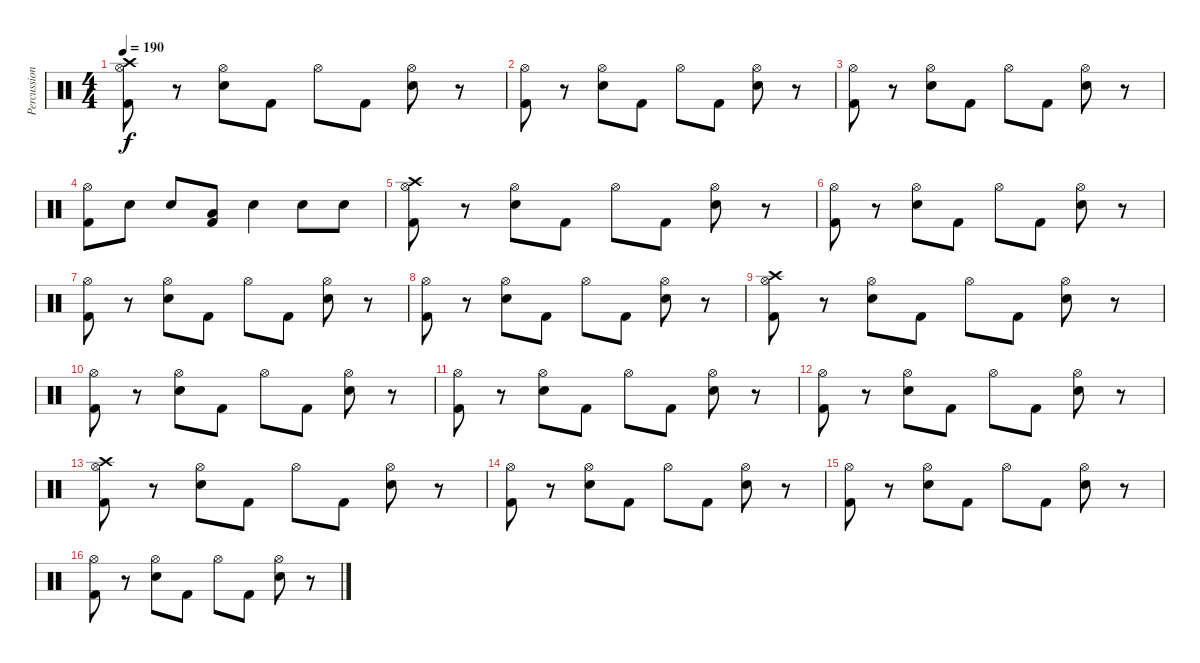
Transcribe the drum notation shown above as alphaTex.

\track ("Percussioni" "Percussion") {instrument percussion}
\staff {score}
\articulation defaults
\ts (4 4)
\tempo 190
\clef neutral
\ks c
("Hi-Hat (open)" "Crash high (hit)" "Kick (hit) 2").8{dy f} r.8 ("Hi-Hat (open)" "Snare (hit) 2").8 "Kick (hit) 2".8 "Hi-Hat (open)".8 "Kick (hit) 2".8 ("Hi-Hat (open)" "Snare (hit) 2").8 r.8 |
("Hi-Hat (open)" "Kick (hit) 2").8 r.8 ("Hi-Hat (open)" "Snare (hit) 2").8 "Kick (hit) 2".8 "Hi-Hat (open)".8 "Kick (hit) 2".8 ("Hi-Hat (open)" "Snare (hit) 2").8 r.8 |
("Hi-Hat (open)" "Kick (hit) 2").8 r.8 ("Hi-Hat (open)" "Snare (hit) 2").8 "Kick (hit) 2".8 "Hi-Hat (open)".8 "Kick (hit) 2".8 ("Hi-Hat (open)" "Snare (hit) 2").8 r.8 |
("Hi-Hat (open)" "Kick (hit) 2").8 "Snare (hit) 2".8 "Snare (hit) 2".8 ("Low Tom (hit)" "Kick (hit) 2").8 "Snare (hit) 2".4 "Snare (hit) 2".8 "Snare (hit) 2".8 |
("Hi-Hat (open)" "Crash high (hit)" "Kick (hit) 2").8 r.8 ("Hi-Hat (open)" "Snare (hit) 2").8 "Kick (hit) 2".8 "Hi-Hat (open)".8 "Kick (hit) 2".8 ("Hi-Hat (open)" "Snare (hit) 2").8 r.8 |
("Hi-Hat (open)" "Kick (hit) 2").8 r.8 ("Hi-Hat (open)" "Snare (hit) 2").8 "Kick (hit) 2".8 "Hi-Hat (open)".8 "Kick (hit) 2".8 ("Hi-Hat (open)" "Snare (hit) 2").8 r.8 |
("Hi-Hat (open)" "Kick (hit) 2").8 r.8 ("Hi-Hat (open)" "Snare (hit) 2").8 "Kick (hit) 2".8 "Hi-Hat (open)".8 "Kick (hit) 2".8 ("Hi-Hat (open)" "Snare (hit) 2").8 r.8 |
("Hi-Hat (open)" "Kick (hit) 2").8 r.8 ("Hi-Hat (open)" "Snare (hit) 2").8 "Kick (hit) 2".8 "Hi-Hat (open)".8 "Kick (hit) 2".8 ("Hi-Hat (open)" "Snare (hit) 2").8 r.8 |
("Hi-Hat (open)" "Crash high (hit)" "Kick (hit) 2").8 r.8 ("Hi-Hat (open)" "Snare (hit) 2").8 "Kick (hit) 2".8 "Hi-Hat (open)".8 "Kick (hit) 2".8 ("Hi-Hat (open)" "Snare (hit) 2").8 r.8 |
("Hi-Hat (open)" "Kick (hit) 2").8 r.8 ("Hi-Hat (open)" "Snare (hit) 2").8 "Kick (hit) 2".8 "Hi-Hat (open)".8 "Kick (hit) 2".8 ("Hi-Hat (open)" "Snare (hit) 2").8 r.8 |
("Hi-Hat (open)" "Kick (hit) 2").8 r.8 ("Hi-Hat (open)" "Snare (hit) 2").8 "Kick (hit) 2".8 "Hi-Hat (open)".8 "Kick (hit) 2".8 ("Hi-Hat (open)" "Snare (hit) 2").8 r.8 |
("Hi-Hat (open)" "Kick (hit) 2").8 r.8 ("Hi-Hat (open)" "Snare (hit) 2").8 "Kick (hit) 2".8 "Hi-Hat (open)".8 "Kick (hit) 2".8 ("Hi-Hat (open)" "Snare (hit) 2").8 r.8 |
("Hi-Hat (open)" "Crash high (hit)" "Kick (hit) 2").8 r.8 ("Hi-Hat (open)" "Snare (hit) 2").8 "Kick (hit) 2".8 "Hi-Hat (open)".8 "Kick (hit) 2".8 ("Hi-Hat (open)" "Snare (hit) 2").8 r.8 |
("Hi-Hat (open)" "Kick (hit) 2").8 r.8 ("Hi-Hat (open)" "Snare (hit) 2").8 "Kick (hit) 2".8 "Hi-Hat (open)".8 "Kick (hit) 2".8 ("Hi-Hat (open)" "Snare (hit) 2").8 r.8 |
("Hi-Hat (open)" "Kick (hit) 2").8 r.8 ("Hi-Hat (open)" "Snare (hit) 2").8 "Kick (hit) 2".8 "Hi-Hat (open)".8 "Kick (hit) 2".8 ("Hi-Hat (open)" "Snare (hit) 2").8 r.8 |
("Hi-Hat (open)" "Kick (hit) 2").8 r.8 ("Hi-Hat (open)" "Snare (hit) 2").8 "Kick (hit) 2".8 "Hi-Hat (open)".8 "Kick (hit) 2".8 ("Hi-Hat (open)" "Snare (hit) 2").8 r.8
